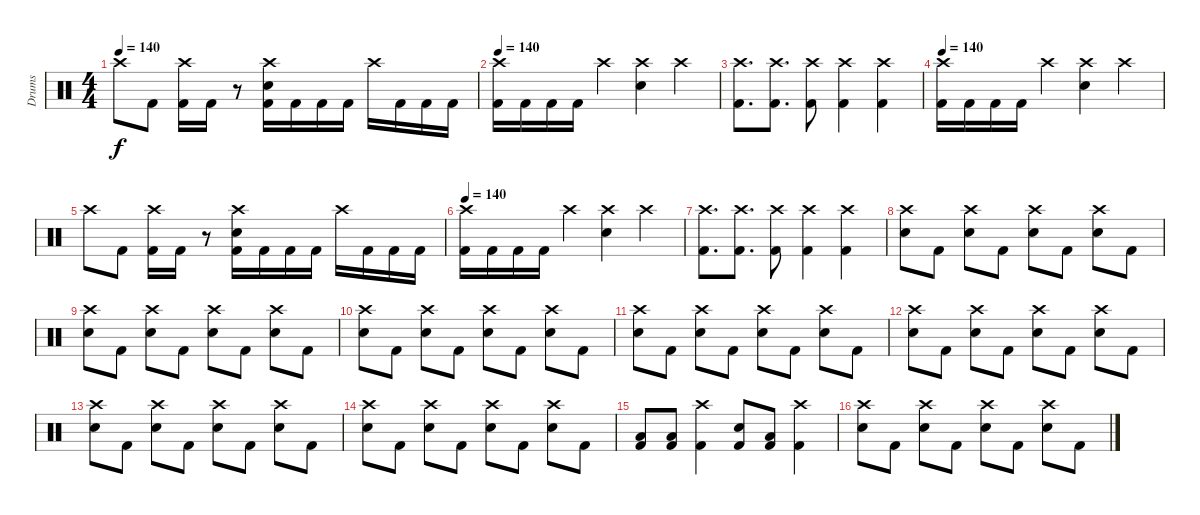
\track ("Drums" "Drums") {instrument percussion}
\staff {score}
\articulation defaults
\ts (4 4)
\tempo 140
\clef neutral
\ks c "Crash high (hit)".8{dy f} "Kick (hit) 2".8
("Crash high (hit)" "Kick (hit) 2").16 "Kick (hit) 2".16 r.8 ("Crash high (hit)" "Electric Snare (hit)" "Kick (hit) 2").16 "Kick (hit) 2".16 "Kick (hit) 2".16 "Kick (hit) 2".16 "Crash high (hit)".16 "Kick (hit) 2".16 "Kick (hit) 2".16 "Kick (hit) 2".16 |
\tempo 140
("Crash high (hit)" "Kick (hit) 2").16 "Kick (hit) 2".16 "Kick (hit) 2".16 "Kick (hit) 2".16 "Crash high (hit)".4 ("Crash high (hit)" "Electric Snare (hit)").4 "Crash high (hit)".4 |
("Crash high (hit)" "Kick (hit) 2").8{d} ("Crash high (hit)" "Kick (hit) 2").8{d} ("Crash high (hit)" "Kick (hit) 2").8 ("Crash high (hit)" "Kick (hit) 2").4 ("Crash high (hit)" "Kick (hit) 2").4 |
\tempo 140
("Crash high (hit)" "Kick (hit) 2").16 "Kick (hit) 2".16 "Kick (hit) 2".16 "Kick (hit) 2".16 "Crash high (hit)".4 ("Crash high (hit)" "Electric Snare (hit)").4 "Crash high (hit)".4 |
"Crash high (hit)".8 "Kick (hit) 2".8 ("Crash high (hit)" "Kick (hit) 2").16 "Kick (hit) 2".16 r.8 ("Crash high (hit)" "Electric Snare (hit)" "Kick (hit) 2").16 "Kick (hit) 2".16 "Kick (hit) 2".16 "Kick (hit) 2".16 "Crash high (hit)".16 "Kick (hit) 2".16 "Kick (hit) 2".16 "Kick (hit) 2".16 |
\tempo 140
("Crash high (hit)" "Kick (hit) 2").16 "Kick (hit) 2".16 "Kick (hit) 2".16 "Kick (hit) 2".16 "Crash high (hit)".4 ("Crash high (hit)" "Electric Snare (hit)").4 "Crash high (hit)".4 |
("Crash high (hit)" "Kick (hit) 2").8{d} ("Crash high (hit)" "Kick (hit) 2").8{d} ("Crash high (hit)" "Kick (hit) 2").8 ("Crash high (hit)" "Kick (hit) 2").4 ("Crash high (hit)" "Kick (hit) 2").4 |
("Crash high (hit)" "Electric Snare (hit)").8 "Kick (hit) 2".8 ("Crash high (hit)" "Electric Snare (hit)").8 "Kick (hit) 2".8 ("Crash high (hit)" "Electric Snare (hit)").8 "Kick (hit) 2".8 ("Crash high (hit)" "Electric Snare (hit)").8 "Kick (hit) 2".8 |
("Crash high (hit)" "Electric Snare (hit)").8 "Kick (hit) 2".8 ("Crash high (hit)" "Electric Snare (hit)").8 "Kick (hit) 2".8 ("Crash high (hit)" "Electric Snare (hit)").8 "Kick (hit) 2".8 ("Crash high (hit)" "Electric Snare (hit)").8 "Kick (hit) 2".8 |
("Crash high (hit)" "Electric Snare (hit)").8 "Kick (hit) 2".8 ("Crash high (hit)" "Electric Snare (hit)").8 "Kick (hit) 2".8 ("Crash high (hit)" "Electric Snare (hit)").8 "Kick (hit) 2".8 ("Crash high (hit)" "Electric Snare (hit)").8 "Kick (hit) 2".8 |
("Crash high (hit)" "Electric Snare (hit)").8 "Kick (hit) 2".8 ("Crash high (hit)" "Electric Snare (hit)").8 "Kick (hit) 2".8 ("Crash high (hit)" "Electric Snare (hit)").8 "Kick (hit) 2".8 ("Crash high (hit)" "Electric Snare (hit)").8 "Kick (hit) 2".8 |
("Crash high (hit)" "Electric Snare (hit)").8 "Kick (hit) 2".8 ("Crash high (hit)" "Electric Snare (hit)").8 "Kick (hit) 2".8 ("Crash high (hit)" "Electric Snare (hit)").8 "Kick (hit) 2".8 ("Crash high (hit)" "Electric Snare (hit)").8 "Kick (hit) 2".8 |
("Crash high (hit)" "Electric Snare (hit)").8 "Kick (hit) 2".8 ("Crash high (hit)" "Electric Snare (hit)").8 "Kick (hit) 2".8 ("Crash high (hit)" "Electric Snare (hit)").8 "Kick (hit) 2".8 ("Crash high (hit)" "Electric Snare (hit)").8 "Kick (hit) 2".8 |
("Crash high (hit)" "Electric Snare (hit)").8 "Kick (hit) 2".8 ("Crash high (hit)" "Electric Snare (hit)").8 "Kick (hit) 2".8 ("Crash high (hit)" "Electric Snare (hit)").8 "Kick (hit) 2".8 ("Crash high (hit)" "Electric Snare (hit)").8 "Kick (hit) 2".8 |
("Low Floor Tom (hit)" "Kick (hit) 2").8 ("Low Floor Tom (hit)" "Kick (hit) 2").8 ("Crash high (hit)" "Kick (hit) 2").4 ("Electric Snare (hit)" "Kick (hit) 2").8 ("Low Floor Tom (hit)" "Kick (hit) 2").8 ("Crash high (hit)" "Kick (hit) 2").4 |
("Crash high (hit)" "Electric Snare (hit)").8 "Kick (hit) 2".8 ("Crash high (hit)" "Electric Snare (hit)").8 "Kick (hit) 2".8 ("Crash high (hit)" "Electric Snare (hit)").8 "Kick (hit) 2".8 ("Crash high (hit)" "Electric Snare (hit)").8 "Kick (hit) 2".8
